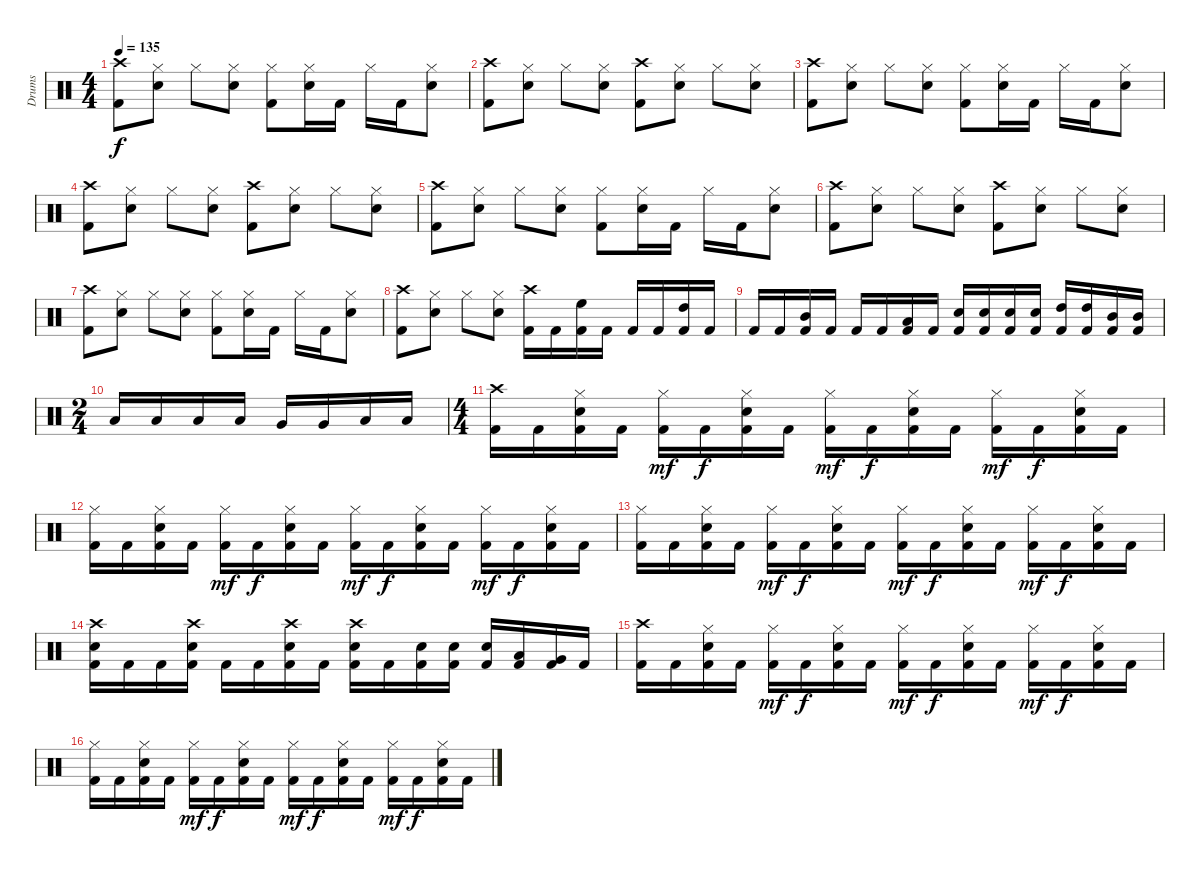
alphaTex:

\track ("Drums" "Drums") {instrument percussion}
\staff {score}
\articulation defaults
\ts (4 4)
\tempo 135
\clef neutral
\ks c
("Crash high (hit)" "Kick (hit) 2").8{dy f} ("Hi-Hat (closed)" "Snare (hit) 2").8 "Hi-Hat (closed)".8 ("Hi-Hat (closed)" "Snare (hit) 2").8 ("Hi-Hat (closed)" "Kick (hit) 2").8 ("Hi-Hat (closed)" "Snare (hit) 2").16 "Kick (hit) 2".16 "Hi-Hat (closed)".16 "Kick (hit) 2".16 ("Hi-Hat (closed)" "Snare (hit) 2").8 |
("Crash high (hit)" "Kick (hit) 2").8 ("Hi-Hat (closed)" "Snare (hit) 2").8 "Hi-Hat (closed)".8 ("Hi-Hat (closed)" "Snare (hit) 2").8 ("Crash high (hit)" "Kick (hit) 2").8 ("Hi-Hat (closed)" "Snare (hit) 2").8 "Hi-Hat (closed)".8 ("Hi-Hat (closed)" "Snare (hit) 2").8 |
("Crash high (hit)" "Kick (hit) 2").8 ("Hi-Hat (closed)" "Snare (hit) 2").8 "Hi-Hat (closed)".8 ("Hi-Hat (closed)" "Snare (hit) 2").8 ("Hi-Hat (closed)" "Kick (hit) 2").8 ("Hi-Hat (closed)" "Snare (hit) 2").16 "Kick (hit) 2".16 "Hi-Hat (closed)".16 "Kick (hit) 2".16 ("Hi-Hat (closed)" "Snare (hit) 2").8 |
("Crash high (hit)" "Kick (hit) 2").8 ("Hi-Hat (closed)" "Snare (hit) 2").8 "Hi-Hat (closed)".8 ("Hi-Hat (closed)" "Snare (hit) 2").8 ("Crash high (hit)" "Kick (hit) 2").8 ("Hi-Hat (closed)" "Snare (hit) 2").8 "Hi-Hat (closed)".8 ("Hi-Hat (closed)" "Snare (hit) 2").8 |
("Crash high (hit)" "Kick (hit) 2").8 ("Hi-Hat (closed)" "Snare (hit) 2").8 "Hi-Hat (closed)".8 ("Hi-Hat (closed)" "Snare (hit) 2").8 ("Hi-Hat (closed)" "Kick (hit) 2").8 ("Hi-Hat (closed)" "Snare (hit) 2").16 "Kick (hit) 2".16 "Hi-Hat (closed)".16 "Kick (hit) 2".16 ("Hi-Hat (closed)" "Snare (hit) 2").8 |
("Crash high (hit)" "Kick (hit) 2").8 ("Hi-Hat (closed)" "Snare (hit) 2").8 "Hi-Hat (closed)".8 ("Hi-Hat (closed)" "Snare (hit) 2").8 ("Crash high (hit)" "Kick (hit) 2").8 ("Hi-Hat (closed)" "Snare (hit) 2").8 "Hi-Hat (closed)".8 ("Hi-Hat (closed)" "Snare (hit) 2").8 |
("Crash high (hit)" "Kick (hit) 2").8 ("Hi-Hat (closed)" "Snare (hit) 2").8 "Hi-Hat (closed)".8 ("Hi-Hat (closed)" "Snare (hit) 2").8 ("Hi-Hat (closed)" "Kick (hit) 2").8 ("Hi-Hat (closed)" "Snare (hit) 2").16 "Kick (hit) 2".16 "Hi-Hat (closed)".16 "Kick (hit) 2".16 ("Hi-Hat (closed)" "Snare (hit) 2").8 |
("Crash high (hit)" "Kick (hit) 2").8 ("Hi-Hat (closed)" "Snare (hit) 2").8 "Hi-Hat (closed)".8 ("Hi-Hat (closed)" "Snare (hit) 2").8 ("Crash high (hit)" "Kick (hit) 2").16 "Kick (hit) 2".16 ("High Floor Tom (hit)" "Kick (hit) 2").16 "Kick (hit) 2".16 "Kick (hit) 2".16 "Kick (hit) 2".16 ("High Tom (hit)" "Kick (hit) 2").16 "Kick (hit) 2".16 |
"Kick (hit) 2".16 "Kick (hit) 2".16 ("Mid Tom (hit)" "Kick (hit) 2").16 "Kick (hit) 2".16 "Kick (hit) 2".16 "Kick (hit) 2".16 ("Low Tom (hit)" "Kick (hit) 2").16 "Kick (hit) 2".16 ("Snare (hit) 2" "Kick (hit) 2").16 ("Snare (hit) 2" "Kick (hit) 2").16 ("Snare (hit) 2" "Kick (hit) 2").16 ("Snare (hit) 2" "Kick (hit) 2").16 ("High Tom (hit)" "Kick (hit) 2").16 ("High Tom (hit)" "Kick (hit) 2").16 ("Mid Tom (hit)" "Kick (hit) 2").16 ("Mid Tom (hit)" "Kick (hit) 2").16 |
\ts (2 4)
"Low Tom (hit)".16 "Low Tom (hit)".16 "Low Tom (hit)".16 "Low Tom (hit)".16 "Very Low Tom (hit)".16 "Very Low Tom (hit)".16 "Low Floor Tom (hit)".16 "Low Floor Tom (hit)".16 |
\ts (4 4)
("Crash high (hit)" "Kick (hit) 2").16 "Kick (hit) 2".16 ("Hi-Hat (closed)" "Snare (hit) 2" "Kick (hit) 2").16 "Kick (hit) 2".16 ("Hi-Hat (closed)" "Kick (hit) 2").16{dy mf} "Kick (hit) 2".16{dy f} ("Hi-Hat (closed)" "Snare (hit) 2" "Kick (hit) 2").16 "Kick (hit) 2".16 ("Hi-Hat (closed)" "Kick (hit) 2").16{dy mf} "Kick (hit) 2".16{dy f} ("Hi-Hat (closed)" "Snare (hit) 2" "Kick (hit) 2").16 "Kick (hit) 2".16 ("Hi-Hat (closed)" "Kick (hit) 2").16{dy mf} "Kick (hit) 2".16{dy f} ("Hi-Hat (closed)" "Snare (hit) 2" "Kick (hit) 2").16 "Kick (hit) 2".16 |
("Hi-Hat (closed)" "Kick (hit) 2").16 "Kick (hit) 2".16 ("Hi-Hat (closed)" "Snare (hit) 2" "Kick (hit) 2").16 "Kick (hit) 2".16 ("Hi-Hat (closed)" "Kick (hit) 2").16{dy mf} "Kick (hit) 2".16{dy f} ("Hi-Hat (closed)" "Snare (hit) 2" "Kick (hit) 2").16 "Kick (hit) 2".16 ("Hi-Hat (closed)" "Kick (hit) 2").16{dy mf} "Kick (hit) 2".16{dy f} ("Hi-Hat (closed)" "Snare (hit) 2" "Kick (hit) 2").16 "Kick (hit) 2".16 ("Hi-Hat (closed)" "Kick (hit) 2").16{dy mf} "Kick (hit) 2".16{dy f} ("Hi-Hat (closed)" "Snare (hit) 2" "Kick (hit) 2").16 "Kick (hit) 2".16 |
("Hi-Hat (closed)" "Kick (hit) 2").16 "Kick (hit) 2".16 ("Hi-Hat (closed)" "Snare (hit) 2" "Kick (hit) 2").16 "Kick (hit) 2".16 ("Hi-Hat (closed)" "Kick (hit) 2").16{dy mf} "Kick (hit) 2".16{dy f} ("Hi-Hat (closed)" "Snare (hit) 2" "Kick (hit) 2").16 "Kick (hit) 2".16 ("Hi-Hat (closed)" "Kick (hit) 2").16{dy mf} "Kick (hit) 2".16{dy f} ("Hi-Hat (closed)" "Snare (hit) 2" "Kick (hit) 2").16 "Kick (hit) 2".16 ("Hi-Hat (closed)" "Kick (hit) 2").16{dy mf} "Kick (hit) 2".16{dy f} ("Hi-Hat (closed)" "Snare (hit) 2" "Kick (hit) 2").16 "Kick (hit) 2".16 |
("Crash high (hit)" "Snare (hit) 2" "Kick (hit) 2").16 "Kick (hit) 2".16 "Kick (hit) 2".16 ("Crash high (hit)" "Snare (hit) 2" "Kick (hit) 2").16 "Kick (hit) 2".16 "Kick (hit) 2".16 ("Crash high (hit)" "Snare (hit) 2" "Kick (hit) 2").16 "Kick (hit) 2".16 ("Crash high (hit)" "Snare (hit) 2" "Kick (hit) 2").16 "Kick (hit) 2".16 ("Snare (hit) 2" "Kick (hit) 2").16 ("Snare (hit) 2" "Kick (hit) 2").16 ("Snare (hit) 2" "Kick (hit) 2").16 ("Low Tom (hit)" "Kick (hit) 2").16 ("Very Low Tom (hit)" "Kick (hit) 2").16 "Kick (hit) 2".16 |
("Crash high (hit)" "Kick (hit) 2").16 "Kick (hit) 2".16 ("Hi-Hat (closed)" "Snare (hit) 2" "Kick (hit) 2").16 "Kick (hit) 2".16 ("Hi-Hat (closed)" "Kick (hit) 2").16{dy mf} "Kick (hit) 2".16{dy f} ("Hi-Hat (closed)" "Snare (hit) 2" "Kick (hit) 2").16 "Kick (hit) 2".16 ("Hi-Hat (closed)" "Kick (hit) 2").16{dy mf} "Kick (hit) 2".16{dy f} ("Hi-Hat (closed)" "Snare (hit) 2" "Kick (hit) 2").16 "Kick (hit) 2".16 ("Hi-Hat (closed)" "Kick (hit) 2").16{dy mf} "Kick (hit) 2".16{dy f} ("Hi-Hat (closed)" "Snare (hit) 2" "Kick (hit) 2").16 "Kick (hit) 2".16 |
("Hi-Hat (closed)" "Kick (hit) 2").16 "Kick (hit) 2".16 ("Hi-Hat (closed)" "Snare (hit) 2" "Kick (hit) 2").16 "Kick (hit) 2".16 ("Hi-Hat (closed)" "Kick (hit) 2").16{dy mf} "Kick (hit) 2".16{dy f} ("Hi-Hat (closed)" "Snare (hit) 2" "Kick (hit) 2").16 "Kick (hit) 2".16 ("Hi-Hat (closed)" "Kick (hit) 2").16{dy mf} "Kick (hit) 2".16{dy f} ("Hi-Hat (closed)" "Snare (hit) 2" "Kick (hit) 2").16 "Kick (hit) 2".16 ("Hi-Hat (closed)" "Kick (hit) 2").16{dy mf} "Kick (hit) 2".16{dy f} ("Hi-Hat (closed)" "Snare (hit) 2" "Kick (hit) 2").16 "Kick (hit) 2".16
